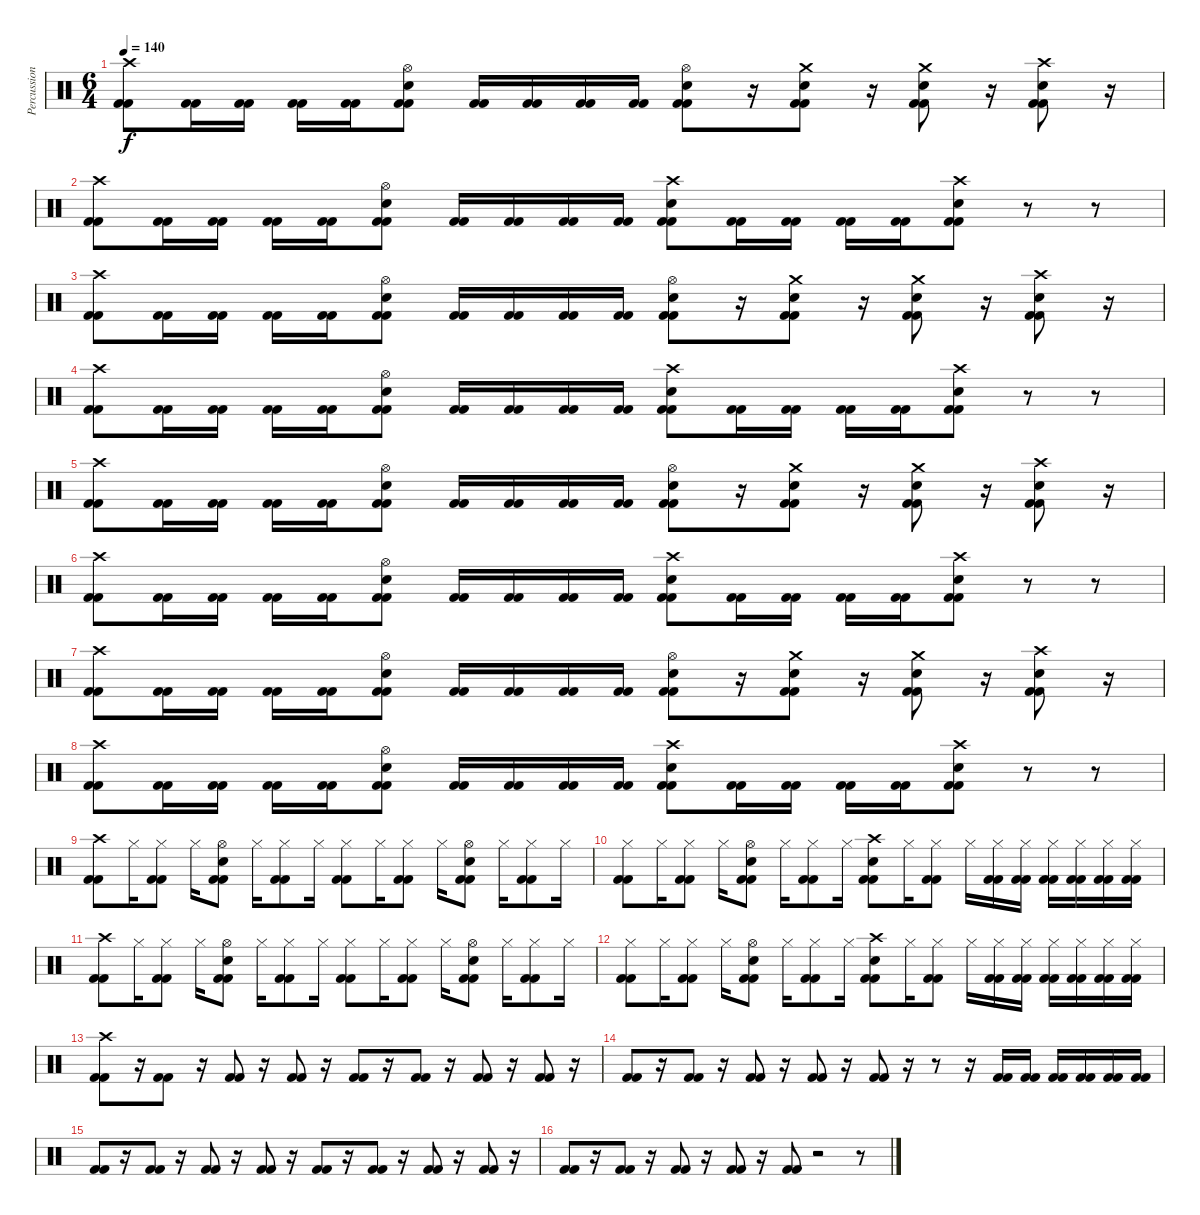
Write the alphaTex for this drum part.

\track ("Percussion" "Percussion") {instrument percussion}
\staff {score}
\articulation defaults
\ts (6 4)
\tempo 140
\clef neutral
\ks c
("Crash high (hit)" "Kick (hit) 2" "Kick (hit) 2").8{dy f} ("Kick (hit) 2" "Kick (hit) 2").16 ("Kick (hit) 2" "Kick (hit) 2").16 ("Kick (hit) 2" "Kick (hit) 2").16 ("Kick (hit) 2" "Kick (hit) 2").16 ("Electric Snare (hit)" "Hi-Hat (open)" "Kick (hit) 2" "Kick (hit) 2").8 ("Kick (hit) 2" "Kick (hit) 2").16 ("Kick (hit) 2" "Kick (hit) 2").16 ("Kick (hit) 2" "Kick (hit) 2").16 ("Kick (hit) 2" "Kick (hit) 2").16 ("Electric Snare (hit)" "Hi-Hat (open)" "Kick (hit) 2" "Kick (hit) 2").8 r.16 ("Crash medium (hit)" "Electric Snare (hit)" "Kick (hit) 2" "Kick (hit) 2").8 r.16 ("Crash medium (hit)" "Electric Snare (hit)" "Kick (hit) 2" "Kick (hit) 2").8 r.16 ("Crash high (hit)" "Electric Snare (hit)" "Kick (hit) 2" "Kick (hit) 2").8 r.16 |
("Crash high (hit)" "Kick (hit) 2" "Kick (hit) 2").8 ("Kick (hit) 2" "Kick (hit) 2").16 ("Kick (hit) 2" "Kick (hit) 2").16 ("Kick (hit) 2" "Kick (hit) 2").16 ("Kick (hit) 2" "Kick (hit) 2").16 ("Electric Snare (hit)" "Hi-Hat (open)" "Kick (hit) 2" "Kick (hit) 2").8 ("Kick (hit) 2" "Kick (hit) 2").16 ("Kick (hit) 2" "Kick (hit) 2").16 ("Kick (hit) 2" "Kick (hit) 2").16 ("Kick (hit) 2" "Kick (hit) 2").16 ("Crash high (hit)" "Electric Snare (hit)" "Kick (hit) 2" "Kick (hit) 2").8 ("Kick (hit) 2" "Kick (hit) 2").16 ("Kick (hit) 2" "Kick (hit) 2").16 ("Kick (hit) 2" "Kick (hit) 2").16 ("Kick (hit) 2" "Kick (hit) 2").16 ("Crash high (hit)" "Electric Snare (hit)" "Kick (hit) 2" "Kick (hit) 2").8 r.8 r.8 |
("Crash high (hit)" "Kick (hit) 2" "Kick (hit) 2").8 ("Kick (hit) 2" "Kick (hit) 2").16 ("Kick (hit) 2" "Kick (hit) 2").16 ("Kick (hit) 2" "Kick (hit) 2").16 ("Kick (hit) 2" "Kick (hit) 2").16 ("Electric Snare (hit)" "Hi-Hat (open)" "Kick (hit) 2" "Kick (hit) 2").8 ("Kick (hit) 2" "Kick (hit) 2").16 ("Kick (hit) 2" "Kick (hit) 2").16 ("Kick (hit) 2" "Kick (hit) 2").16 ("Kick (hit) 2" "Kick (hit) 2").16 ("Electric Snare (hit)" "Hi-Hat (open)" "Kick (hit) 2" "Kick (hit) 2").8 r.16 ("Crash medium (hit)" "Electric Snare (hit)" "Kick (hit) 2" "Kick (hit) 2").8 r.16 ("Crash medium (hit)" "Electric Snare (hit)" "Kick (hit) 2" "Kick (hit) 2").8 r.16 ("Crash high (hit)" "Electric Snare (hit)" "Kick (hit) 2" "Kick (hit) 2").8 r.16 |
("Crash high (hit)" "Kick (hit) 2" "Kick (hit) 2").8 ("Kick (hit) 2" "Kick (hit) 2").16 ("Kick (hit) 2" "Kick (hit) 2").16 ("Kick (hit) 2" "Kick (hit) 2").16 ("Kick (hit) 2" "Kick (hit) 2").16 ("Electric Snare (hit)" "Hi-Hat (open)" "Kick (hit) 2" "Kick (hit) 2").8 ("Kick (hit) 2" "Kick (hit) 2").16 ("Kick (hit) 2" "Kick (hit) 2").16 ("Kick (hit) 2" "Kick (hit) 2").16 ("Kick (hit) 2" "Kick (hit) 2").16 ("Crash high (hit)" "Electric Snare (hit)" "Kick (hit) 2" "Kick (hit) 2").8 ("Kick (hit) 2" "Kick (hit) 2").16 ("Kick (hit) 2" "Kick (hit) 2").16 ("Kick (hit) 2" "Kick (hit) 2").16 ("Kick (hit) 2" "Kick (hit) 2").16 ("Crash high (hit)" "Electric Snare (hit)" "Kick (hit) 2" "Kick (hit) 2").8 r.8 r.8 |
("Crash high (hit)" "Kick (hit) 2" "Kick (hit) 2").8 ("Kick (hit) 2" "Kick (hit) 2").16 ("Kick (hit) 2" "Kick (hit) 2").16 ("Kick (hit) 2" "Kick (hit) 2").16 ("Kick (hit) 2" "Kick (hit) 2").16 ("Electric Snare (hit)" "Hi-Hat (open)" "Kick (hit) 2" "Kick (hit) 2").8 ("Kick (hit) 2" "Kick (hit) 2").16 ("Kick (hit) 2" "Kick (hit) 2").16 ("Kick (hit) 2" "Kick (hit) 2").16 ("Kick (hit) 2" "Kick (hit) 2").16 ("Electric Snare (hit)" "Hi-Hat (open)" "Kick (hit) 2" "Kick (hit) 2").8 r.16 ("Crash medium (hit)" "Electric Snare (hit)" "Kick (hit) 2" "Kick (hit) 2").8 r.16 ("Crash medium (hit)" "Electric Snare (hit)" "Kick (hit) 2" "Kick (hit) 2").8 r.16 ("Crash high (hit)" "Electric Snare (hit)" "Kick (hit) 2" "Kick (hit) 2").8 r.16 |
("Crash high (hit)" "Kick (hit) 2" "Kick (hit) 2").8 ("Kick (hit) 2" "Kick (hit) 2").16 ("Kick (hit) 2" "Kick (hit) 2").16 ("Kick (hit) 2" "Kick (hit) 2").16 ("Kick (hit) 2" "Kick (hit) 2").16 ("Electric Snare (hit)" "Hi-Hat (open)" "Kick (hit) 2" "Kick (hit) 2").8 ("Kick (hit) 2" "Kick (hit) 2").16 ("Kick (hit) 2" "Kick (hit) 2").16 ("Kick (hit) 2" "Kick (hit) 2").16 ("Kick (hit) 2" "Kick (hit) 2").16 ("Crash high (hit)" "Electric Snare (hit)" "Kick (hit) 2" "Kick (hit) 2").8 ("Kick (hit) 2" "Kick (hit) 2").16 ("Kick (hit) 2" "Kick (hit) 2").16 ("Kick (hit) 2" "Kick (hit) 2").16 ("Kick (hit) 2" "Kick (hit) 2").16 ("Crash high (hit)" "Electric Snare (hit)" "Kick (hit) 2" "Kick (hit) 2").8 r.8 r.8 |
("Crash high (hit)" "Kick (hit) 2" "Kick (hit) 2").8 ("Kick (hit) 2" "Kick (hit) 2").16 ("Kick (hit) 2" "Kick (hit) 2").16 ("Kick (hit) 2" "Kick (hit) 2").16 ("Kick (hit) 2" "Kick (hit) 2").16 ("Electric Snare (hit)" "Hi-Hat (open)" "Kick (hit) 2" "Kick (hit) 2").8 ("Kick (hit) 2" "Kick (hit) 2").16 ("Kick (hit) 2" "Kick (hit) 2").16 ("Kick (hit) 2" "Kick (hit) 2").16 ("Kick (hit) 2" "Kick (hit) 2").16 ("Electric Snare (hit)" "Hi-Hat (open)" "Kick (hit) 2" "Kick (hit) 2").8 r.16 ("Crash medium (hit)" "Electric Snare (hit)" "Kick (hit) 2" "Kick (hit) 2").8 r.16 ("Crash medium (hit)" "Electric Snare (hit)" "Kick (hit) 2" "Kick (hit) 2").8 r.16 ("Crash high (hit)" "Electric Snare (hit)" "Kick (hit) 2" "Kick (hit) 2").8 r.16 |
("Crash high (hit)" "Kick (hit) 2" "Kick (hit) 2").8 ("Kick (hit) 2" "Kick (hit) 2").16 ("Kick (hit) 2" "Kick (hit) 2").16 ("Kick (hit) 2" "Kick (hit) 2").16 ("Kick (hit) 2" "Kick (hit) 2").16 ("Electric Snare (hit)" "Hi-Hat (open)" "Kick (hit) 2" "Kick (hit) 2").8 ("Kick (hit) 2" "Kick (hit) 2").16 ("Kick (hit) 2" "Kick (hit) 2").16 ("Kick (hit) 2" "Kick (hit) 2").16 ("Kick (hit) 2" "Kick (hit) 2").16 ("Crash high (hit)" "Electric Snare (hit)" "Kick (hit) 2" "Kick (hit) 2").8 ("Kick (hit) 2" "Kick (hit) 2").16 ("Kick (hit) 2" "Kick (hit) 2").16 ("Kick (hit) 2" "Kick (hit) 2").16 ("Kick (hit) 2" "Kick (hit) 2").16 ("Crash high (hit)" "Electric Snare (hit)" "Kick (hit) 2" "Kick (hit) 2").8 r.8 r.8 |
("Crash high (hit)" "Kick (hit) 2" "Kick (hit) 2").8 "Hi-Hat (closed)".16 ("Hi-Hat (closed)" "Kick (hit) 2" "Kick (hit) 2").8 "Hi-Hat (closed)".16 ("Electric Snare (hit)" "Hi-Hat (open)" "Kick (hit) 2" "Kick (hit) 2").8 "Hi-Hat (closed)".16 ("Hi-Hat (closed)" "Kick (hit) 2" "Kick (hit) 2").8 "Hi-Hat (closed)".16 ("Hi-Hat (closed)" "Kick (hit) 2" "Kick (hit) 2").8 "Hi-Hat (closed)".16 ("Hi-Hat (closed)" "Kick (hit) 2" "Kick (hit) 2").8 "Hi-Hat (closed)".16 ("Electric Snare (hit)" "Hi-Hat (open)" "Kick (hit) 2" "Kick (hit) 2").8 "Hi-Hat (closed)".16 ("Hi-Hat (closed)" "Kick (hit) 2" "Kick (hit) 2").8 "Hi-Hat (closed)".16 |
("Hi-Hat (closed)" "Kick (hit) 2" "Kick (hit) 2").8 "Hi-Hat (closed)".16 ("Hi-Hat (closed)" "Kick (hit) 2" "Kick (hit) 2").8 "Hi-Hat (closed)".16 ("Electric Snare (hit)" "Hi-Hat (open)" "Kick (hit) 2" "Kick (hit) 2").8 "Hi-Hat (closed)".16 ("Hi-Hat (closed)" "Kick (hit) 2" "Kick (hit) 2").8 "Hi-Hat (closed)".16 ("Crash high (hit)" "Electric Snare (hit)" "Kick (hit) 2" "Kick (hit) 2").8 "Hi-Hat (closed)".16 ("Hi-Hat (closed)" "Kick (hit) 2" "Kick (hit) 2").8 "Hi-Hat (closed)".16 ("Hi-Hat (closed)" "Kick (hit) 2" "Kick (hit) 2").16 ("Hi-Hat (closed)" "Kick (hit) 2" "Kick (hit) 2").16 ("Hi-Hat (closed)" "Kick (hit) 2" "Kick (hit) 2").16 ("Hi-Hat (closed)" "Kick (hit) 2" "Kick (hit) 2").16 ("Hi-Hat (closed)" "Kick (hit) 2" "Kick (hit) 2").16 ("Hi-Hat (closed)" "Kick (hit) 2" "Kick (hit) 2").16 |
("Crash high (hit)" "Kick (hit) 2" "Kick (hit) 2").8 "Hi-Hat (closed)".16 ("Hi-Hat (closed)" "Kick (hit) 2" "Kick (hit) 2").8 "Hi-Hat (closed)".16 ("Electric Snare (hit)" "Hi-Hat (open)" "Kick (hit) 2" "Kick (hit) 2").8 "Hi-Hat (closed)".16 ("Hi-Hat (closed)" "Kick (hit) 2" "Kick (hit) 2").8 "Hi-Hat (closed)".16 ("Hi-Hat (closed)" "Kick (hit) 2" "Kick (hit) 2").8 "Hi-Hat (closed)".16 ("Hi-Hat (closed)" "Kick (hit) 2" "Kick (hit) 2").8 "Hi-Hat (closed)".16 ("Electric Snare (hit)" "Hi-Hat (open)" "Kick (hit) 2" "Kick (hit) 2").8 "Hi-Hat (closed)".16 ("Hi-Hat (closed)" "Kick (hit) 2" "Kick (hit) 2").8 "Hi-Hat (closed)".16 |
("Hi-Hat (closed)" "Kick (hit) 2" "Kick (hit) 2").8 "Hi-Hat (closed)".16 ("Hi-Hat (closed)" "Kick (hit) 2" "Kick (hit) 2").8 "Hi-Hat (closed)".16 ("Electric Snare (hit)" "Hi-Hat (open)" "Kick (hit) 2" "Kick (hit) 2").8 "Hi-Hat (closed)".16 ("Hi-Hat (closed)" "Kick (hit) 2" "Kick (hit) 2").8 "Hi-Hat (closed)".16 ("Crash high (hit)" "Electric Snare (hit)" "Kick (hit) 2" "Kick (hit) 2").8 "Hi-Hat (closed)".16 ("Hi-Hat (closed)" "Kick (hit) 2" "Kick (hit) 2").8 "Hi-Hat (closed)".16 ("Hi-Hat (closed)" "Kick (hit) 2" "Kick (hit) 2").16 ("Hi-Hat (closed)" "Kick (hit) 2" "Kick (hit) 2").16 ("Hi-Hat (closed)" "Kick (hit) 2" "Kick (hit) 2").16 ("Hi-Hat (closed)" "Kick (hit) 2" "Kick (hit) 2").16 ("Hi-Hat (closed)" "Kick (hit) 2" "Kick (hit) 2").16 ("Hi-Hat (closed)" "Kick (hit) 2" "Kick (hit) 2").16 |
("Crash high (hit)" "Kick (hit) 2" "Kick (hit) 2").8 r.16 ("Kick (hit) 2" "Kick (hit) 2").8 r.16 ("Kick (hit) 2" "Kick (hit) 2").8 r.16 ("Kick (hit) 2" "Kick (hit) 2").8 r.16 ("Kick (hit) 2" "Kick (hit) 2").8 r.16 ("Kick (hit) 2" "Kick (hit) 2").8 r.16 ("Kick (hit) 2" "Kick (hit) 2").8 r.16 ("Kick (hit) 2" "Kick (hit) 2").8 r.16 |
("Kick (hit) 2" "Kick (hit) 2").8 r.16 ("Kick (hit) 2" "Kick (hit) 2").8 r.16 ("Kick (hit) 2" "Kick (hit) 2").8 r.16 ("Kick (hit) 2" "Kick (hit) 2").8 r.16 ("Kick (hit) 2" "Kick (hit) 2").8 r.16 r.8 r.16 ("Kick (hit) 2" "Kick (hit) 2").16 ("Kick (hit) 2" "Kick (hit) 2").16 ("Kick (hit) 2" "Kick (hit) 2").16 ("Kick (hit) 2" "Kick (hit) 2").16 ("Kick (hit) 2" "Kick (hit) 2").16 ("Kick (hit) 2" "Kick (hit) 2").16 |
("Kick (hit) 2" "Kick (hit) 2").8 r.16 ("Kick (hit) 2" "Kick (hit) 2").8 r.16 ("Kick (hit) 2" "Kick (hit) 2").8 r.16 ("Kick (hit) 2" "Kick (hit) 2").8 r.16 ("Kick (hit) 2" "Kick (hit) 2").8 r.16 ("Kick (hit) 2" "Kick (hit) 2").8 r.16 ("Kick (hit) 2" "Kick (hit) 2").8 r.16 ("Kick (hit) 2" "Kick (hit) 2").8 r.16 |
("Kick (hit) 2" "Kick (hit) 2").8 r.16 ("Kick (hit) 2" "Kick (hit) 2").8 r.16 ("Kick (hit) 2" "Kick (hit) 2").8 r.16 ("Kick (hit) 2" "Kick (hit) 2").8 r.16 ("Kick (hit) 2" "Kick (hit) 2").8 r.2 r.8
